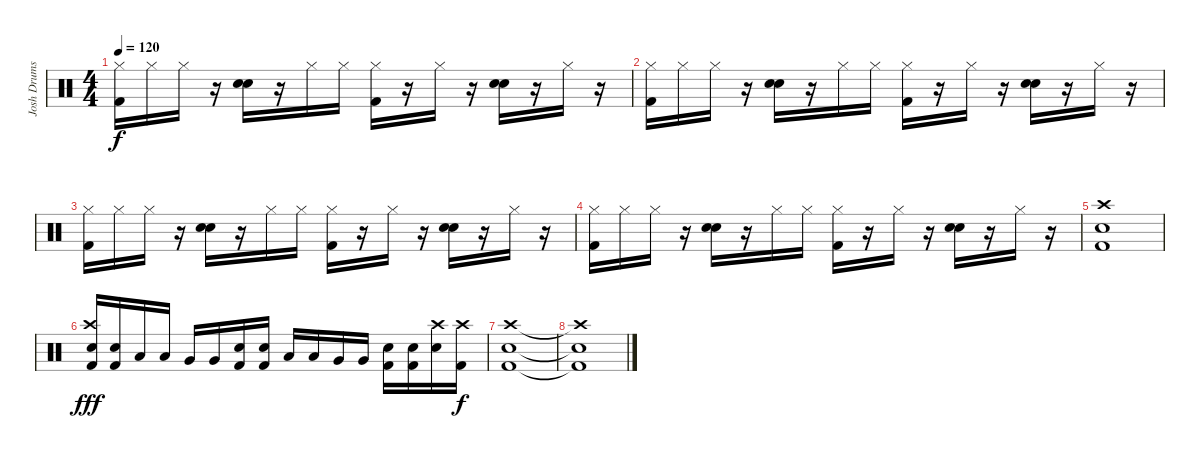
\track ("Josh Drums" "Josh Drums") {instrument percussion}
\staff {score}
\articulation defaults
\ts (4 4)
\tempo 120
\clef neutral
\ks c
("Hi-Hat (closed)" "Kick (hit) 2").16{dy f} "Hi-Hat (closed)".16 "Hi-Hat (closed)".16 r.16 ("Hand Clap (hit)" "Hand Clap (hit)").16 r.16 "Hi-Hat (closed)".16 "Hi-Hat (closed)".16 ("Hi-Hat (closed)" "Kick (hit) 2").16 r.16 "Hi-Hat (closed)".16 r.16 ("Hand Clap (hit)" "Hand Clap (hit)").16 r.16 "Hi-Hat (closed)".16 r.16 |
("Hi-Hat (closed)" "Kick (hit) 2").16 "Hi-Hat (closed)".16 "Hi-Hat (closed)".16 r.16 ("Hand Clap (hit)" "Hand Clap (hit)").16 r.16 "Hi-Hat (closed)".16 "Hi-Hat (closed)".16 ("Hi-Hat (closed)" "Kick (hit) 2").16 r.16 "Hi-Hat (closed)".16 r.16 ("Hand Clap (hit)" "Hand Clap (hit)").16 r.16 "Hi-Hat (closed)".16 r.16 |
("Hi-Hat (closed)" "Kick (hit) 2").16 "Hi-Hat (closed)".16 "Hi-Hat (closed)".16 r.16 ("Hand Clap (hit)" "Hand Clap (hit)").16 r.16 "Hi-Hat (closed)".16 "Hi-Hat (closed)".16 ("Hi-Hat (closed)" "Kick (hit) 2").16 r.16 "Hi-Hat (closed)".16 r.16 ("Hand Clap (hit)" "Hand Clap (hit)").16 r.16 "Hi-Hat (closed)".16 r.16 |
("Hi-Hat (closed)" "Kick (hit) 2").16 "Hi-Hat (closed)".16 "Hi-Hat (closed)".16 r.16 ("Hand Clap (hit)" "Hand Clap (hit)").16 r.16 "Hi-Hat (closed)".16 "Hi-Hat (closed)".16 ("Hi-Hat (closed)" "Kick (hit) 2").16 r.16 "Hi-Hat (closed)".16 r.16 ("Hand Clap (hit)" "Hand Clap (hit)").16 r.16 "Hi-Hat (closed)".16 r.16 |
("Crash high (hit)" "Electric Snare (hit)" "Kick (hit) 2").1 |
("Crash high (hit)" "Electric Snare (hit)" "Kick (hit) 2").16{dy fff} ("Electric Snare (hit)" "Kick (hit) 2").16 "Low Tom (hit)".16 "Low Tom (hit)".16 "Very Low Tom (hit)".16 "Very Low Tom (hit)".16 ("Electric Snare (hit)" "Kick (hit) 2").16 ("Electric Snare (hit)" "Kick (hit) 2").16 "Low Tom (hit)".16 "Low Tom (hit)".16 "Very Low Tom (hit)".16 "Very Low Tom (hit)".16 ("Electric Snare (hit)" "Kick (hit) 2").16 ("Electric Snare (hit)" "Kick (hit) 2").16 ("Crash high (hit)" "Electric Snare (hit)").16 ("Crash high (hit)" "Kick (hit) 2").16{dy f} |
("Crash high (hit)" "Electric Snare (hit)" "Kick (hit) 2").1 |
("Crash high (hit)"{t} "Electric Snare (hit)"{t} "Kick (hit) 2"{t}).1
